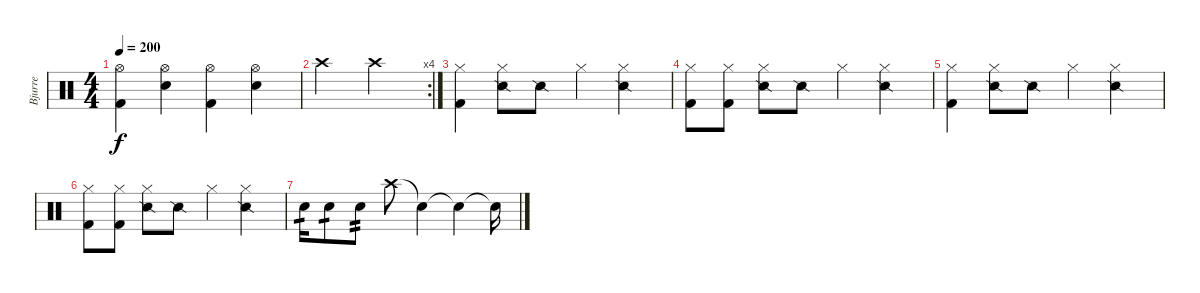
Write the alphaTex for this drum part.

\track ("Bjurre" "Bjurre") {instrument percussion}
\staff
\articulation defaults
\ts (4 4)
\tempo 200
\clef neutral
\ks c
("Hi-Hat (open)" "Kick (hit) 2").4{dy f} ("Hi-Hat (open)" "Electric Snare (hit)").4 ("Hi-Hat (open)" "Kick (hit) 2").4 ("Hi-Hat (open)" "Electric Snare (hit)").4 |
\rc 4 "Crash high (hit)".2 "Crash high (hit)".2
|
("Hi-Hat (closed)" "Kick (hit) 2").4 ("Hi-Hat (closed)" "Snare (side stick) 2").8 "Snare (side stick) 2".8 "Hi-Hat (closed)".4 ("Hi-Hat (closed)" "Snare (side stick) 2").4 |
("Hi-Hat (closed)" "Kick (hit) 2").8 ("Hi-Hat (closed)" "Kick (hit) 2").8 ("Hi-Hat (closed)" "Snare (side stick) 2").8 "Snare (side stick) 2".8 "Hi-Hat (closed)".4 ("Hi-Hat (closed)" "Snare (side stick) 2").4 |
("Hi-Hat (closed)" "Kick (hit) 2").4 ("Hi-Hat (closed)" "Snare (side stick) 2").8 "Snare (side stick) 2".8 "Hi-Hat (closed)".4 ("Hi-Hat (closed)" "Snare (side stick) 2").4 |
("Hi-Hat (closed)" "Kick (hit) 2").8 ("Hi-Hat (closed)" "Kick (hit) 2").8 ("Hi-Hat (closed)" "Snare (side stick) 2").8 "Snare (side stick) 2".8 "Hi-Hat (closed)".4 ("Hi-Hat (closed)" "Snare (side stick) 2").4 |
"Electric Snare (hit)".16{tp 1} "Electric Snare (hit)".8{tp 1} "Electric Snare (hit)".8{tp 2} "Crash high (hit)".8 "Snare (hit)"{t}.4 "Snare (hit)"{t}.4 "Snare (hit)"{t}.16
